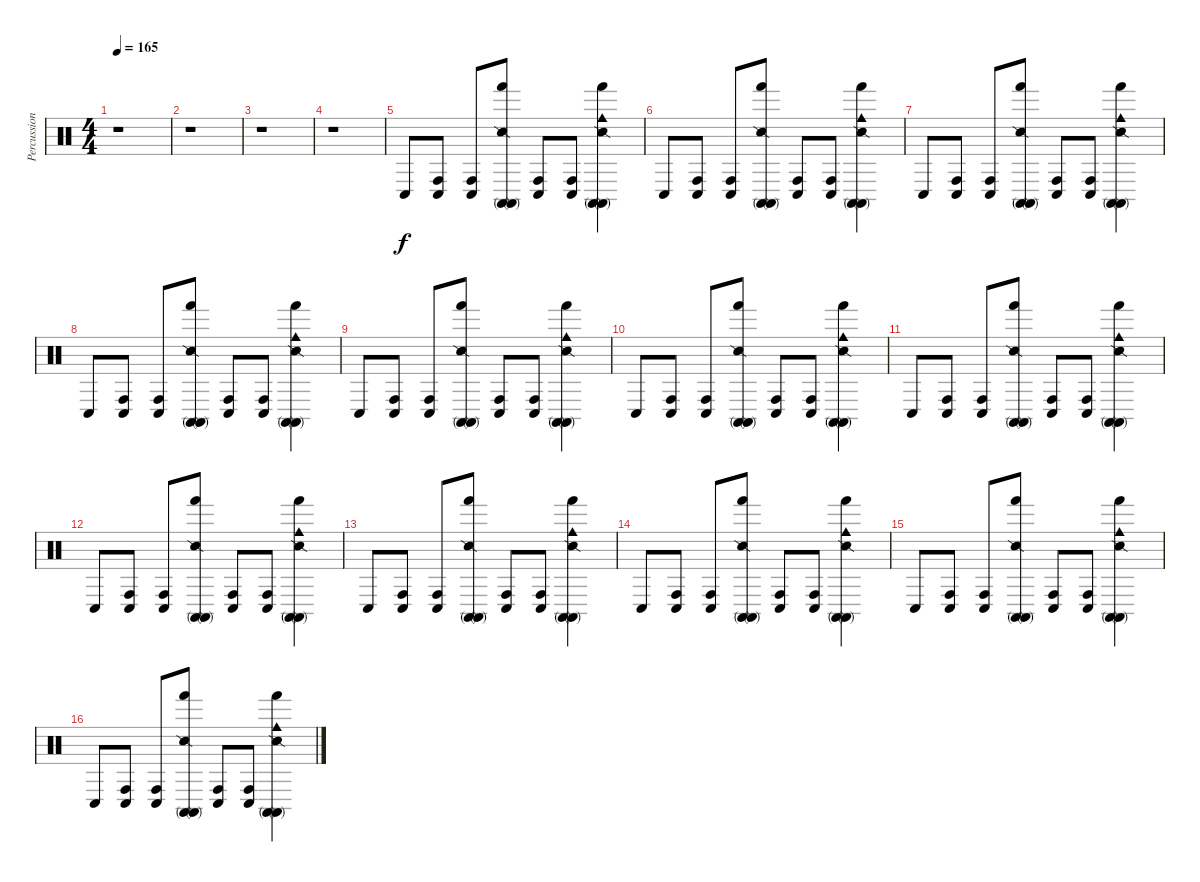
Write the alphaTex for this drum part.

\track ("Percussion" "Percussion") {instrument percussion}
\staff {score}
\articulation defaults
\ts (4 4)
\tempo 165
\clef neutral
\ks c
r.1{dy f} |
r.1 |
r.1 |
r.1 |
"Conga low (hit)".8 ("Conga high (hit)" "Conga low (hit)").8 ("Conga high (hit)" "Conga low (hit)").8 ("Snare (side stick) 2" "Hand (hit)" "Conga high (mute)" "Conga high (mute)").8 ("Conga high (hit)" "Conga low (hit)").8 ("Conga high (hit)" "Conga low (hit)").8 ("Snare (side stick) 2" "Hand (hit)" "Cowbell medium (hit)" "Conga high (mute)" "Conga high (mute)").4 |
"Conga low (hit)".8 ("Conga high (hit)" "Conga low (hit)").8 ("Conga high (hit)" "Conga low (hit)").8 ("Snare (side stick) 2" "Hand (hit)" "Conga high (mute)" "Conga high (mute)").8 ("Conga high (hit)" "Conga low (hit)").8 ("Conga high (hit)" "Conga low (hit)").8 ("Snare (side stick) 2" "Hand (hit)" "Cowbell medium (hit)" "Conga high (mute)" "Conga high (mute)").4 |
"Conga low (hit)".8 ("Conga high (hit)" "Conga low (hit)").8 ("Conga high (hit)" "Conga low (hit)").8 ("Snare (side stick) 2" "Hand (hit)" "Conga high (mute)" "Conga high (mute)").8 ("Conga high (hit)" "Conga low (hit)").8 ("Conga high (hit)" "Conga low (hit)").8 ("Snare (side stick) 2" "Hand (hit)" "Cowbell medium (hit)" "Conga high (mute)" "Conga high (mute)").4 |
"Conga low (hit)".8 ("Conga high (hit)" "Conga low (hit)").8 ("Conga high (hit)" "Conga low (hit)").8 ("Snare (side stick) 2" "Hand (hit)" "Conga high (mute)" "Conga high (mute)").8 ("Conga high (hit)" "Conga low (hit)").8 ("Conga high (hit)" "Conga low (hit)").8 ("Snare (side stick) 2" "Hand (hit)" "Cowbell medium (hit)" "Conga high (mute)" "Conga high (mute)").4 |
"Conga low (hit)".8 ("Conga high (hit)" "Conga low (hit)").8 ("Conga high (hit)" "Conga low (hit)").8 ("Snare (side stick) 2" "Hand (hit)" "Conga high (mute)" "Conga high (mute)").8 ("Conga high (hit)" "Conga low (hit)").8 ("Conga high (hit)" "Conga low (hit)").8 ("Snare (side stick) 2" "Hand (hit)" "Cowbell medium (hit)" "Conga high (mute)" "Conga high (mute)").4 |
"Conga low (hit)".8 ("Conga high (hit)" "Conga low (hit)").8 ("Conga high (hit)" "Conga low (hit)").8 ("Snare (side stick) 2" "Hand (hit)" "Conga high (mute)" "Conga high (mute)").8 ("Conga high (hit)" "Conga low (hit)").8 ("Conga high (hit)" "Conga low (hit)").8 ("Snare (side stick) 2" "Hand (hit)" "Cowbell medium (hit)" "Conga high (mute)" "Conga high (mute)").4 |
"Conga low (hit)".8 ("Conga high (hit)" "Conga low (hit)").8 ("Conga high (hit)" "Conga low (hit)").8 ("Snare (side stick) 2" "Hand (hit)" "Conga high (mute)" "Conga high (mute)").8 ("Conga high (hit)" "Conga low (hit)").8 ("Conga high (hit)" "Conga low (hit)").8 ("Snare (side stick) 2" "Hand (hit)" "Cowbell medium (hit)" "Conga high (mute)" "Conga high (mute)").4 |
"Conga low (hit)".8 ("Conga high (hit)" "Conga low (hit)").8 ("Conga high (hit)" "Conga low (hit)").8 ("Snare (side stick) 2" "Hand (hit)" "Conga high (mute)" "Conga high (mute)").8 ("Conga high (hit)" "Conga low (hit)").8 ("Conga high (hit)" "Conga low (hit)").8 ("Snare (side stick) 2" "Hand (hit)" "Cowbell medium (hit)" "Conga high (mute)" "Conga high (mute)").4 |
"Conga low (hit)".8 ("Conga high (hit)" "Conga low (hit)").8 ("Conga high (hit)" "Conga low (hit)").8 ("Snare (side stick) 2" "Hand (hit)" "Conga high (mute)" "Conga high (mute)").8 ("Conga high (hit)" "Conga low (hit)").8 ("Conga high (hit)" "Conga low (hit)").8 ("Snare (side stick) 2" "Hand (hit)" "Cowbell medium (hit)" "Conga high (mute)" "Conga high (mute)").4 |
"Conga low (hit)".8 ("Conga high (hit)" "Conga low (hit)").8 ("Conga high (hit)" "Conga low (hit)").8 ("Snare (side stick) 2" "Hand (hit)" "Conga high (mute)" "Conga high (mute)").8 ("Conga high (hit)" "Conga low (hit)").8 ("Conga high (hit)" "Conga low (hit)").8 ("Snare (side stick) 2" "Hand (hit)" "Cowbell medium (hit)" "Conga high (mute)" "Conga high (mute)").4 |
"Conga low (hit)".8 ("Conga high (hit)" "Conga low (hit)").8 ("Conga high (hit)" "Conga low (hit)").8 ("Snare (side stick) 2" "Hand (hit)" "Conga high (mute)" "Conga high (mute)").8 ("Conga high (hit)" "Conga low (hit)").8 ("Conga high (hit)" "Conga low (hit)").8 ("Snare (side stick) 2" "Hand (hit)" "Cowbell medium (hit)" "Conga high (mute)" "Conga high (mute)").4 |
"Conga low (hit)".8 ("Conga high (hit)" "Conga low (hit)").8 ("Conga high (hit)" "Conga low (hit)").8 ("Snare (side stick) 2" "Hand (hit)" "Conga high (mute)" "Conga high (mute)").8 ("Conga high (hit)" "Conga low (hit)").8 ("Conga high (hit)" "Conga low (hit)").8 ("Snare (side stick) 2" "Hand (hit)" "Cowbell medium (hit)" "Conga high (mute)" "Conga high (mute)").4
